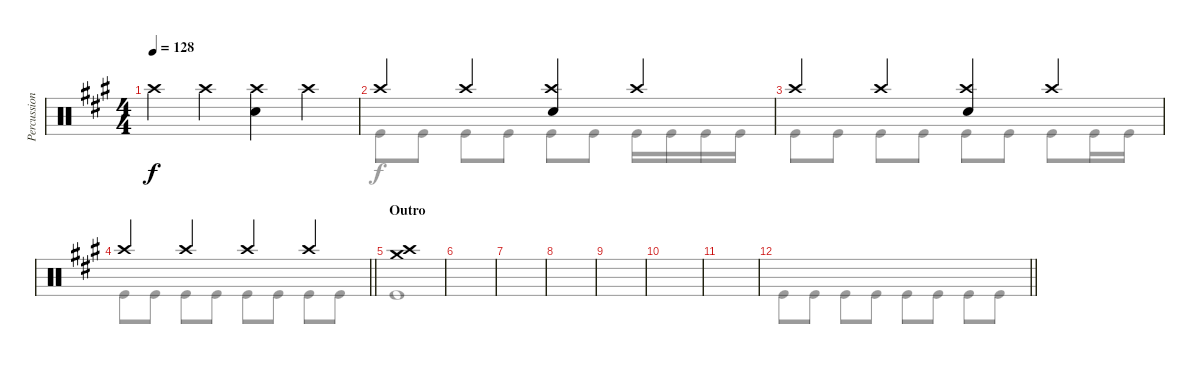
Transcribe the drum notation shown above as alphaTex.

\track ("Percussion" "Percussion") {instrument percussion}
\staff {score}
\articulation defaults
\voice
\ts (4 4)
\tempo 128
\clef neutral
\ks f#minor "Crash high (hit)".4{dy f} "Crash high (hit)".4
("Crash high (hit)" "Electric Snare (hit)").4 "Crash high (hit)".4 |
"Crash high (hit)".4 "Crash high (hit)".4 ("Crash high (hit)" "Electric Snare (hit)").4 "Crash high (hit)".4 |
"Crash high (hit)".4 "Crash high (hit)".4 ("Crash high (hit)" "Electric Snare (hit)").4 "Crash high (hit)".4 |
\barLineRight lightlight "Crash high (hit)".4 "Crash high (hit)".4 "Crash high (hit)".4 "Crash high (hit)".4
|
\section ("" "Outro")
("Crash medium (hit)" "Crash high (hit)").1 |
|
|
|
|
|
|
\barLineRight lightlight
\voice
\clef neutral
\ottava regular
\simile none
\ks f#minor "Kick (hit)".8{dy f} "Kick (hit)".8 "Kick (hit)".8 "Kick (hit)".8 "Kick (hit)".8 "Kick (hit)".8 "Kick (hit)".8 "Kick (hit)".8
|
"Kick (hit)".8 "Kick (hit)".8 "Kick (hit)".8 "Kick (hit)".8 "Kick (hit)".8 "Kick (hit)".8 "Kick (hit)".16 "Kick (hit)".16 "Kick (hit)".16 "Kick (hit)".16 |
"Kick (hit)".8 "Kick (hit)".8 "Kick (hit)".8 "Kick (hit)".8 "Kick (hit)".8 "Kick (hit)".8 "Kick (hit)".8 "Kick (hit)".16 "Kick (hit)".16 |
\barLineRight lightlight "Kick (hit)".8 "Kick (hit)".8 "Kick (hit)".8 "Kick (hit)".8 "Kick (hit)".8 "Kick (hit)".8 "Kick (hit)".8 "Kick (hit)".8
|
"Kick (hit)".1 |
|
|
|
|
|
|
\barLineRight lightlight
